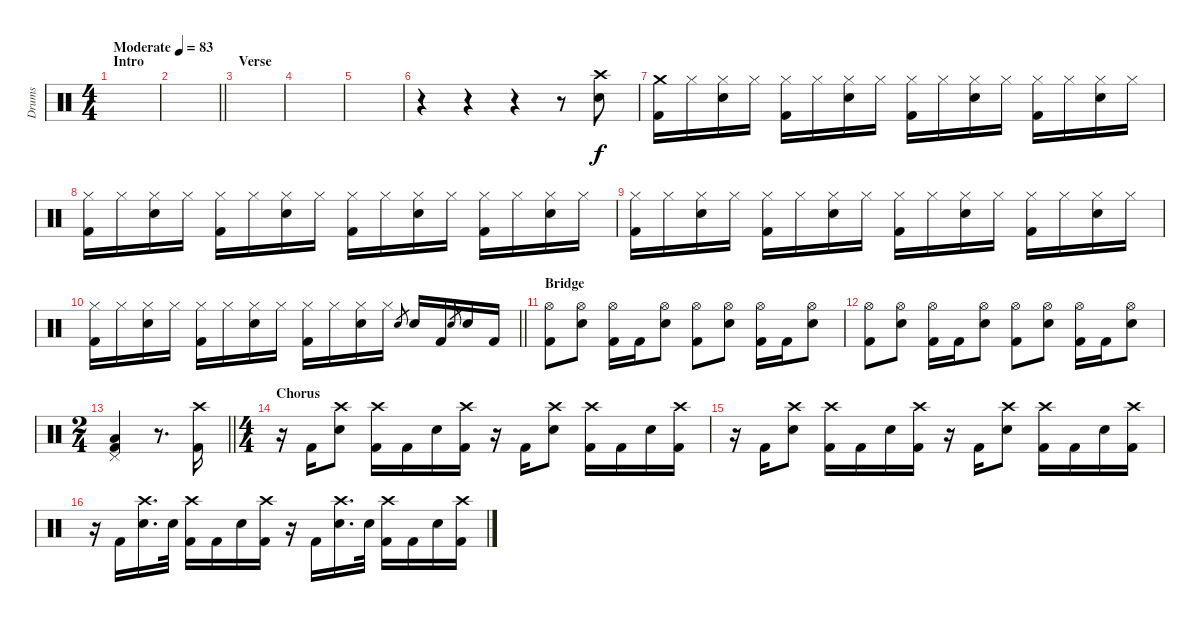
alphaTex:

\track ("Drums" "Drums") {instrument percussion}
\staff {score}
\articulation defaults
\ts (4 4)
\section ("" "Intro")
\tempo (83 "Moderate")
\clef neutral
\ks c
|
\barLineRight lightlight
|
\section ("" "Verse")
|
|
|
r.4 r.4 r.4 r.8 ("Crash high (hit)" "Electric Snare (hit)").8 |
("Crash medium (hit)" "Kick (hit) 2").16 "Hi-Hat (closed)".16 ("Hi-Hat (closed)" "Electric Snare (hit)").16 "Hi-Hat (closed)".16 ("Hi-Hat (closed)" "Kick (hit) 2").16 "Hi-Hat (closed)".16 ("Hi-Hat (closed)" "Electric Snare (hit)").16 "Hi-Hat (closed)".16 ("Hi-Hat (closed)" "Kick (hit) 2").16 "Hi-Hat (closed)".16 ("Hi-Hat (closed)" "Electric Snare (hit)").16 "Hi-Hat (closed)".16 ("Hi-Hat (closed)" "Kick (hit) 2").16 "Hi-Hat (closed)".16 ("Hi-Hat (closed)" "Electric Snare (hit)").16 "Hi-Hat (closed)".16 |
("Hi-Hat (closed)" "Kick (hit) 2").16 "Hi-Hat (closed)".16 ("Hi-Hat (closed)" "Electric Snare (hit)").16 "Hi-Hat (closed)".16 ("Hi-Hat (closed)" "Kick (hit) 2").16 "Hi-Hat (closed)".16 ("Hi-Hat (closed)" "Electric Snare (hit)").16 "Hi-Hat (closed)".16 ("Hi-Hat (closed)" "Kick (hit) 2").16 "Hi-Hat (closed)".16 ("Hi-Hat (closed)" "Electric Snare (hit)").16 "Hi-Hat (closed)".16 ("Hi-Hat (closed)" "Kick (hit) 2").16 "Hi-Hat (closed)".16 ("Hi-Hat (closed)" "Electric Snare (hit)").16 "Hi-Hat (closed)".16 |
("Hi-Hat (closed)" "Kick (hit) 2").16 "Hi-Hat (closed)".16 ("Hi-Hat (closed)" "Electric Snare (hit)").16 "Hi-Hat (closed)".16 ("Hi-Hat (closed)" "Kick (hit) 2").16 "Hi-Hat (closed)".16 ("Hi-Hat (closed)" "Electric Snare (hit)").16 "Hi-Hat (closed)".16 ("Hi-Hat (closed)" "Kick (hit) 2").16 "Hi-Hat (closed)".16 ("Hi-Hat (closed)" "Electric Snare (hit)").16 "Hi-Hat (closed)".16 ("Hi-Hat (closed)" "Kick (hit) 2").16 "Hi-Hat (closed)".16 ("Hi-Hat (closed)" "Electric Snare (hit)").16 "Hi-Hat (closed)".16 |
\barLineRight lightlight
("Hi-Hat (closed)" "Kick (hit) 2").16 "Hi-Hat (closed)".16 ("Hi-Hat (closed)" "Electric Snare (hit)").16 "Hi-Hat (closed)".16 ("Hi-Hat (closed)" "Kick (hit) 2").16 "Hi-Hat (closed)".16 ("Hi-Hat (closed)" "Electric Snare (hit)").16 "Hi-Hat (closed)".16 ("Hi-Hat (closed)" "Kick (hit) 2").16 "Hi-Hat (closed)".16 ("Hi-Hat (closed)" "Electric Snare (hit)").16 "Hi-Hat (closed)".16 "Electric Snare (hit)".8{gr} "Electric Snare (hit)".16 "Kick (hit) 2".16 "Electric Snare (hit)".8{gr} "Electric Snare (hit)".16 "Kick (hit) 2".16 |
\section ("" "Bridge")
("Hi-Hat (open)" "Kick (hit) 2").8 ("Hi-Hat (open)" "Electric Snare (hit)").8 ("Hi-Hat (open)" "Kick (hit) 2").16 "Kick (hit) 2".16 ("Hi-Hat (open)" "Electric Snare (hit)").8 ("Hi-Hat (open)" "Kick (hit) 2").8 ("Hi-Hat (open)" "Electric Snare (hit)").8 ("Hi-Hat (open)" "Kick (hit) 2").16 "Kick (hit) 2".16 ("Hi-Hat (open)" "Electric Snare (hit)").8 |
("Hi-Hat (open)" "Kick (hit) 2").8 ("Hi-Hat (open)" "Electric Snare (hit)").8 ("Hi-Hat (open)" "Kick (hit) 2").16 "Kick (hit) 2".16 ("Hi-Hat (open)" "Electric Snare (hit)").8 ("Hi-Hat (open)" "Kick (hit) 2").8 ("Hi-Hat (open)" "Electric Snare (hit)").8 ("Hi-Hat (open)" "Kick (hit) 2").16 "Kick (hit) 2".16 ("Hi-Hat (open)" "Electric Snare (hit)").8 |
\ts (2 4)
\barLineRight lightlight
("Pedal Hi-Hat (hit)" "Low Floor Tom (hit)" "Kick (hit) 2").4 r.8{d} ("Crash high (hit)" "Kick (hit) 2").16 |
\ts (4 4)
\section ("" "Chorus")
r.16 "Kick (hit) 2".16 ("Crash high (hit)" "Electric Snare (hit)").8 ("Crash high (hit)" "Kick (hit) 2").16 "Kick (hit) 2".16 "Electric Snare (hit)".16 ("Crash high (hit)" "Kick (hit) 2").16 r.16 "Kick (hit) 2".16 ("Crash high (hit)" "Electric Snare (hit)").8 ("Crash high (hit)" "Kick (hit) 2").16 "Kick (hit) 2".16 "Electric Snare (hit)".16 ("Crash high (hit)" "Kick (hit) 2").16 |
r.16 "Kick (hit) 2".16 ("Crash high (hit)" "Electric Snare (hit)").8 ("Crash high (hit)" "Kick (hit) 2").16 "Kick (hit) 2".16 "Electric Snare (hit)".16 ("Crash high (hit)" "Kick (hit) 2").16 r.16 "Kick (hit) 2".16 ("Crash high (hit)" "Electric Snare (hit)").8 ("Crash high (hit)" "Kick (hit) 2").16 "Kick (hit) 2".16 "Electric Snare (hit)".16 ("Crash high (hit)" "Kick (hit) 2").16 |
r.16 "Kick (hit) 2".16 ("Crash high (hit)" "Electric Snare (hit)").16{d} "Electric Snare (hit)".32 ("Crash high (hit)" "Kick (hit) 2").16 "Kick (hit) 2".16 "Electric Snare (hit)".16 ("Crash high (hit)" "Kick (hit) 2").16 r.16 "Kick (hit) 2".16 ("Crash high (hit)" "Electric Snare (hit)").16{d} "Electric Snare (hit)".32 ("Crash high (hit)" "Kick (hit) 2").16 "Kick (hit) 2".16 "Electric Snare (hit)".16 ("Crash high (hit)" "Kick (hit) 2").16
